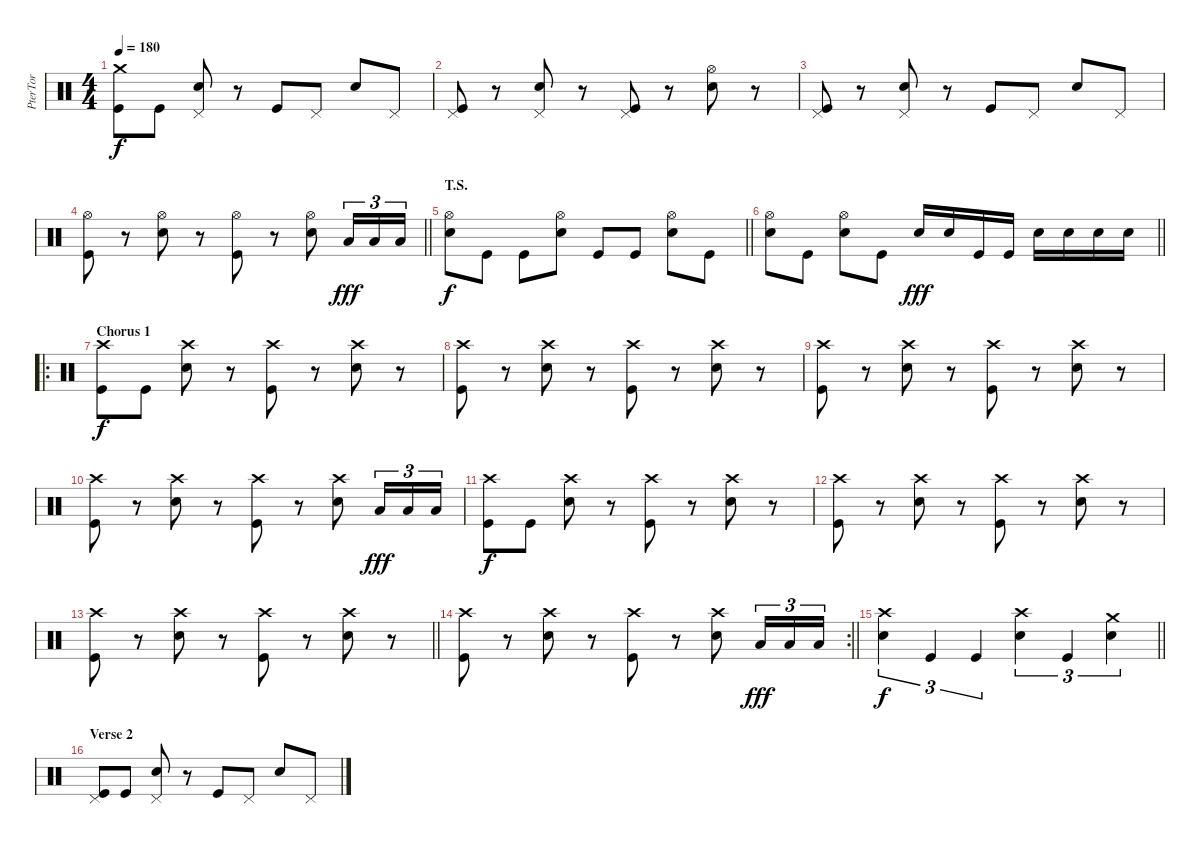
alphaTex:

\track ("PterTor" "PterTor") {instrument percussion}
\staff {score}
\articulation defaults
\ts (4 4)
\tempo 180
\clef neutral
\ks c
("Crash medium (hit)" "Kick (hit)").8{dy f} "Kick (hit)".8 ("Pedal Hi-Hat (hit)" "Electric Snare (hit)").8 r.8 "Kick (hit)".8 "Pedal Hi-Hat (hit)".8 "Electric Snare (hit)".8 "Pedal Hi-Hat (hit)".8 |
("Pedal Hi-Hat (hit)" "Kick (hit)").8 r.8 ("Pedal Hi-Hat (hit)" "Electric Snare (hit)").8 r.8 ("Pedal Hi-Hat (hit)" "Kick (hit)").8 r.8 ("Hi-Hat (open)" "Electric Snare (hit)").8 r.8 |
("Pedal Hi-Hat (hit)" "Kick (hit)").8 r.8 ("Pedal Hi-Hat (hit)" "Electric Snare (hit)").8 r.8 "Kick (hit)".8 "Pedal Hi-Hat (hit)".8 "Electric Snare (hit)".8 "Pedal Hi-Hat (hit)".8 |
\barLineRight lightlight
("Hi-Hat (open)" "Kick (hit)").8 r.8 ("Hi-Hat (open)" "Electric Snare (hit)").8 r.8 ("Hi-Hat (open)" "Kick (hit)").8 r.8 ("Hi-Hat (open)" "Electric Snare (hit)").8 "Low Floor Tom (hit)".16{tu (3 2) dy fff} "Low Floor Tom (hit)".16{tu (3 2)} "Low Floor Tom (hit)".16{tu (3 2)} |
\section ("" "T.S.")
\barLineRight lightlight
("Hi-Hat (open)" "Electric Snare (hit)").8{dy f} "Kick (hit)".8 "Kick (hit)".8 ("Hi-Hat (open)" "Electric Snare (hit)").8 "Kick (hit)".8 "Kick (hit)".8 ("Hi-Hat (open)" "Electric Snare (hit)").8 "Kick (hit)".8 |
\barLineRight lightlight
("Hi-Hat (open)" "Electric Snare (hit)").8 "Kick (hit)".8 ("Hi-Hat (open)" "Electric Snare (hit)").8 "Kick (hit)".8 "Electric Snare (hit)".16{dy fff} "Electric Snare (hit)".16 "Kick (hit)".16 "Kick (hit)".16 "Electric Snare (hit)".16 "Electric Snare (hit)".16 "Electric Snare (hit)".16 "Electric Snare (hit)".16 |
\ro
\section ("" "Chorus 1")
("Crash high (hit)" "Kick (hit)").8{dy f} "Kick (hit)".8 ("Crash high (hit)" "Electric Snare (hit)").8 r.8 ("Crash high (hit)" "Kick (hit)").8 r.8 ("Crash high (hit)" "Electric Snare (hit)").8 r.8 |
("Crash high (hit)" "Kick (hit)").8 r.8 ("Crash high (hit)" "Electric Snare (hit)").8 r.8 ("Crash high (hit)" "Kick (hit)").8 r.8 ("Crash high (hit)" "Electric Snare (hit)").8 r.8 |
("Crash high (hit)" "Kick (hit)").8 r.8 ("Crash high (hit)" "Electric Snare (hit)").8 r.8 ("Crash high (hit)" "Kick (hit)").8 r.8 ("Crash high (hit)" "Electric Snare (hit)").8 r.8 |
("Crash high (hit)" "Kick (hit)").8 r.8 ("Crash high (hit)" "Electric Snare (hit)").8 r.8 ("Crash high (hit)" "Kick (hit)").8 r.8 ("Crash high (hit)" "Electric Snare (hit)").8 "Low Floor Tom (hit)".16{tu (3 2) dy fff} "Low Floor Tom (hit)".16{tu (3 2)} "Low Floor Tom (hit)".16{tu (3 2)} |
("Crash high (hit)" "Kick (hit)").8{dy f} "Kick (hit)".8 ("Crash high (hit)" "Electric Snare (hit)").8 r.8 ("Crash high (hit)" "Kick (hit)").8 r.8 ("Crash high (hit)" "Electric Snare (hit)").8 r.8 |
("Crash high (hit)" "Kick (hit)").8 r.8 ("Crash high (hit)" "Electric Snare (hit)").8 r.8 ("Crash high (hit)" "Kick (hit)").8 r.8 ("Crash high (hit)" "Electric Snare (hit)").8 r.8 |
\barLineRight lightlight
("Crash high (hit)" "Kick (hit)").8 r.8 ("Crash high (hit)" "Electric Snare (hit)").8 r.8 ("Crash high (hit)" "Kick (hit)").8 r.8 ("Crash high (hit)" "Electric Snare (hit)").8 r.8 |
\rc 2
\barLineRight lightlight
("Crash high (hit)" "Kick (hit)").8 r.8 ("Crash high (hit)" "Electric Snare (hit)").8 r.8 ("Crash high (hit)" "Kick (hit)").8 r.8 ("Crash high (hit)" "Electric Snare (hit)").8 "Low Floor Tom (hit)".16{tu (3 2) dy fff} "Low Floor Tom (hit)".16{tu (3 2)} "Low Floor Tom (hit)".16{tu (3 2)} |
\barLineRight lightlight
("Crash high (hit)" "Electric Snare (hit)").4{tu (3 2) dy f} "Kick (hit)".4{tu (3 2)} "Kick (hit)".4{tu (3 2)} ("Crash high (hit)" "Electric Snare (hit)").4{tu (3 2)} "Kick (hit)".4{tu (3 2)} ("Crash medium (hit)" "Electric Snare (hit)").4{tu (3 2)} |
\section ("" "Verse 2")
("Pedal Hi-Hat (hit)" "Kick (hit)").8 "Kick (hit)".8 ("Pedal Hi-Hat (hit)" "Electric Snare (hit)").8 r.8 "Kick (hit)".8 "Pedal Hi-Hat (hit)".8 "Electric Snare (hit)".8 "Pedal Hi-Hat (hit)".8
